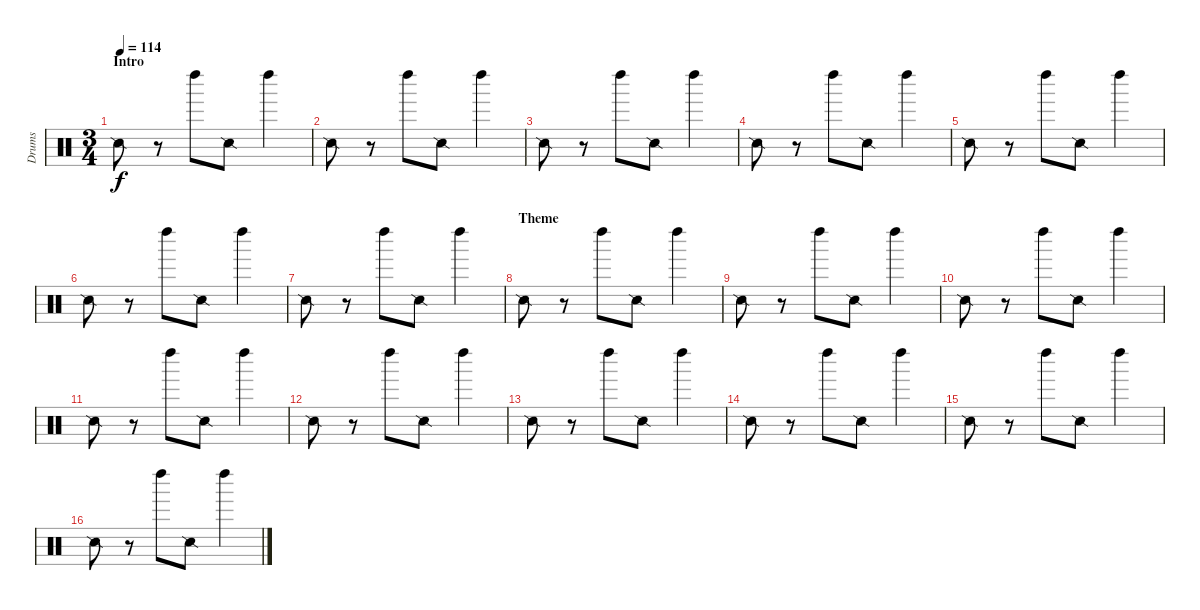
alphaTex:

\track ("Drums" "Drums") {instrument percussion}
\staff {score}
\articulation defaults
\ts (3 4)
\section ("" "Intro")
\tempo 114
\clef neutral
\ks c "Snare (side stick) 2".8{dy f}
r.8 "Left Maraca (hit)".8 "Snare (side stick) 2".8 "Left Maraca (hit)".4 |
"Snare (side stick) 2".8 r.8 "Left Maraca (hit)".8 "Snare (side stick) 2".8 "Left Maraca (hit)".4 |
"Snare (side stick) 2".8 r.8 "Left Maraca (hit)".8 "Snare (side stick) 2".8 "Left Maraca (hit)".4 |
"Snare (side stick) 2".8 r.8 "Left Maraca (hit)".8 "Snare (side stick) 2".8 "Left Maraca (hit)".4 |
"Snare (side stick) 2".8 r.8 "Left Maraca (hit)".8 "Snare (side stick) 2".8 "Left Maraca (hit)".4 |
"Snare (side stick) 2".8 r.8 "Left Maraca (hit)".8 "Snare (side stick) 2".8 "Left Maraca (hit)".4 |
"Snare (side stick) 2".8 r.8 "Left Maraca (hit)".8 "Snare (side stick) 2".8 "Left Maraca (hit)".4 |
\section ("" "Theme")
"Snare (side stick) 2".8 r.8 "Left Maraca (hit)".8 "Snare (side stick) 2".8 "Left Maraca (hit)".4 |
"Snare (side stick) 2".8 r.8 "Left Maraca (hit)".8 "Snare (side stick) 2".8 "Left Maraca (hit)".4 |
"Snare (side stick) 2".8 r.8 "Left Maraca (hit)".8 "Snare (side stick) 2".8 "Left Maraca (hit)".4 |
"Snare (side stick) 2".8 r.8 "Left Maraca (hit)".8 "Snare (side stick) 2".8 "Left Maraca (hit)".4 |
"Snare (side stick) 2".8 r.8 "Left Maraca (hit)".8 "Snare (side stick) 2".8 "Left Maraca (hit)".4 |
"Snare (side stick) 2".8 r.8 "Left Maraca (hit)".8 "Snare (side stick) 2".8 "Left Maraca (hit)".4 |
"Snare (side stick) 2".8 r.8 "Left Maraca (hit)".8 "Snare (side stick) 2".8 "Left Maraca (hit)".4 |
"Snare (side stick) 2".8 r.8 "Left Maraca (hit)".8 "Snare (side stick) 2".8 "Left Maraca (hit)".4 |
"Snare (side stick) 2".8 r.8 "Left Maraca (hit)".8 "Snare (side stick) 2".8 "Left Maraca (hit)".4
